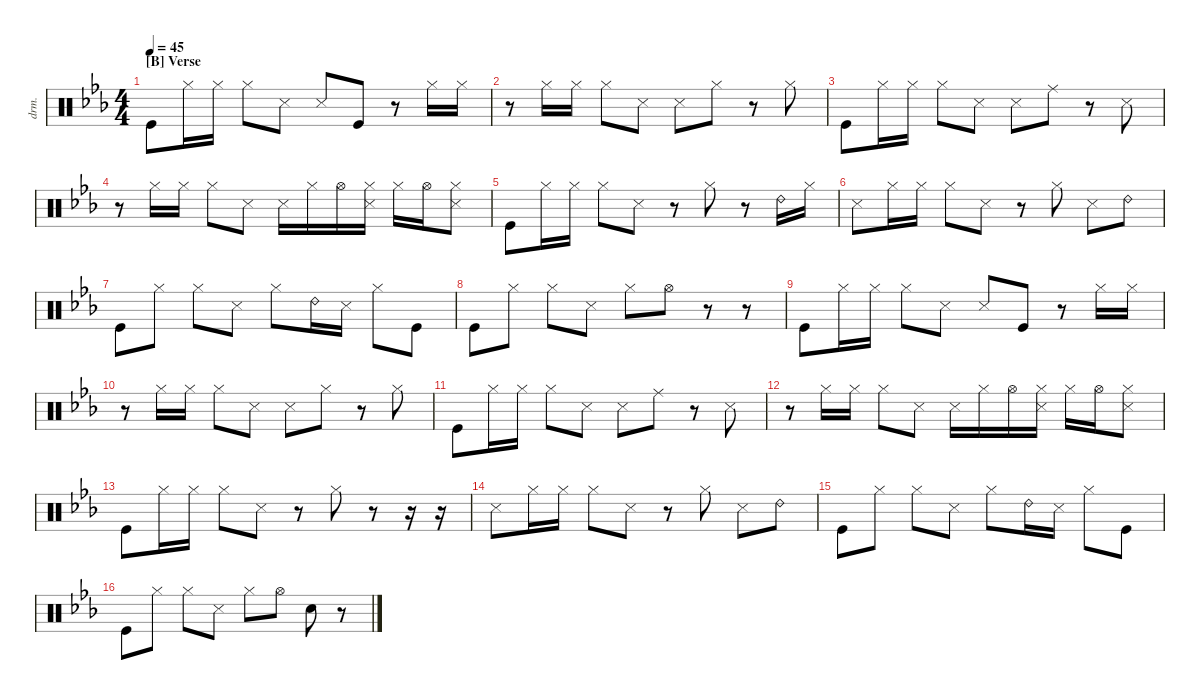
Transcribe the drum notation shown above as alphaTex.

\defaultSystemsLayout 4
\hideDynamics
\bracketExtendMode nobrackets
\otherSystemsTrackNameOrientation horizontal
\track ("Drumkit" "drm.") {instrument percussion}
\staff {score}
\articulation defaults
\ts (4 4)
\section ("B" "Verse")
\tempo 45
\clef neutral
\ks cminor "Kick (hit)".8{dy mf} "Hi-Hat (closed)".16 "Hi-Hat (closed)".16 "Hi-Hat (closed)".8 "Snare (side stick) 3".8 "Snare (side stick) 3".8 "Kick (hit)".8
r.8 "Hi-Hat (closed)".16 "Hi-Hat (closed)".16 |
r.8 "Hi-Hat (closed)".16 "Hi-Hat (closed)".16 "Hi-Hat (closed)".8 "Snare (side stick) 3".8 "Snare (side stick) 3".8 "Hi-Hat (closed)".8 r.8 "Hi-Hat (closed)".8 |
"Kick (hit)".8 "Hi-Hat (closed)".16 "Hi-Hat (closed)".16 "Hi-Hat (closed)".8 "Snare (side stick) 3".8 "Snare (side stick) 3".8 "Ride (middle)".8 r.8 "Snare (side stick) 3".8 |
r.8 "Hi-Hat (closed)".16 "Hi-Hat (closed)".16 "Hi-Hat (closed)".8 "Snare (side stick) 3".8 "Snare (side stick) 3".16 "Hi-Hat (closed)".16 "Hi-Hat (open)".16 ("Hi-Hat (closed)" "Snare (side stick) 3").16 "Hi-Hat (closed)".16 "Hi-Hat (open)".16 ("Hi-Hat (closed)" "Snare (side stick) 3").8 |
"Kick (hit)".8 "Hi-Hat (closed)".16 "Hi-Hat (closed)".16 "Hi-Hat (closed)".8 "Snare (side stick) 3".8 r.8 "Hi-Hat (closed)".8 r.8 "Ride (bell) 2".16 "Hi-Hat (closed)".16 |
"Snare (side stick) 3".8 "Hi-Hat (closed)".16 "Hi-Hat (closed)".16 "Hi-Hat (closed)".8 "Snare (side stick) 3".8 r.8 "Hi-Hat (closed)".8 "Snare (side stick) 3".8 "Ride (bell) 2".8 |
"Kick (hit)".8 "Hi-Hat (closed)".8 "Hi-Hat (closed)".8 "Snare (side stick) 3".8 "Hi-Hat (closed)".8 "Ride (bell) 2".16 "Snare (side stick) 3".16 "Hi-Hat (closed)".8 "Kick (hit)".8 |
"Kick (hit)".8 "Hi-Hat (closed)".8 "Hi-Hat (closed)".8 "Snare (side stick) 3".8 "Hi-Hat (closed)".8 "Hi-Hat (open)".8 r.8 r.8 |
"Kick (hit)".8 "Hi-Hat (closed)".16 "Hi-Hat (closed)".16 "Hi-Hat (closed)".8 "Snare (side stick) 3".8 "Snare (side stick) 3".8 "Kick (hit)".8 r.8 "Hi-Hat (closed)".16 "Hi-Hat (closed)".16 |
r.8 "Hi-Hat (closed)".16 "Hi-Hat (closed)".16 "Hi-Hat (closed)".8 "Snare (side stick) 3".8 "Snare (side stick) 3".8 "Hi-Hat (closed)".8 r.8 "Hi-Hat (closed)".8 |
"Kick (hit)".8 "Hi-Hat (closed)".16 "Hi-Hat (closed)".16 "Hi-Hat (closed)".8 "Snare (side stick) 3".8 "Snare (side stick) 3".8 "Ride (middle)".8 r.8 "Snare (side stick) 3".8 |
r.8 "Hi-Hat (closed)".16 "Hi-Hat (closed)".16 "Hi-Hat (closed)".8 "Snare (side stick) 3".8 "Snare (side stick) 3".16 "Hi-Hat (closed)".16 "Hi-Hat (open)".16 ("Hi-Hat (closed)" "Snare (side stick) 3").16 "Hi-Hat (closed)".16 "Hi-Hat (open)".16 ("Hi-Hat (closed)" "Snare (side stick) 3").8 |
"Kick (hit)".8 "Hi-Hat (closed)".16 "Hi-Hat (closed)".16 "Hi-Hat (closed)".8 "Snare (side stick) 3".8 r.8 "Hi-Hat (closed)".8 r.8 r.16 r.16 |
"Snare (side stick) 3".8 "Hi-Hat (closed)".16 "Hi-Hat (closed)".16 "Hi-Hat (closed)".8 "Snare (side stick) 3".8 r.8 "Hi-Hat (closed)".8 "Snare (side stick) 3".8 "Ride (bell) 2".8 |
"Kick (hit)".8 "Hi-Hat (closed)".8 "Hi-Hat (closed)".8 "Snare (side stick) 3".8 "Hi-Hat (closed)".8 "Ride (bell) 2".16 "Snare (side stick) 3".16 "Hi-Hat (closed)".8 "Kick (hit)".8 |
"Kick (hit)".8 "Hi-Hat (closed)".8 "Hi-Hat (closed)".8 "Snare (side stick) 3".8 "Hi-Hat (closed)".8 "Hi-Hat (open)".8 "Snare (hit) 2".8 r.8
